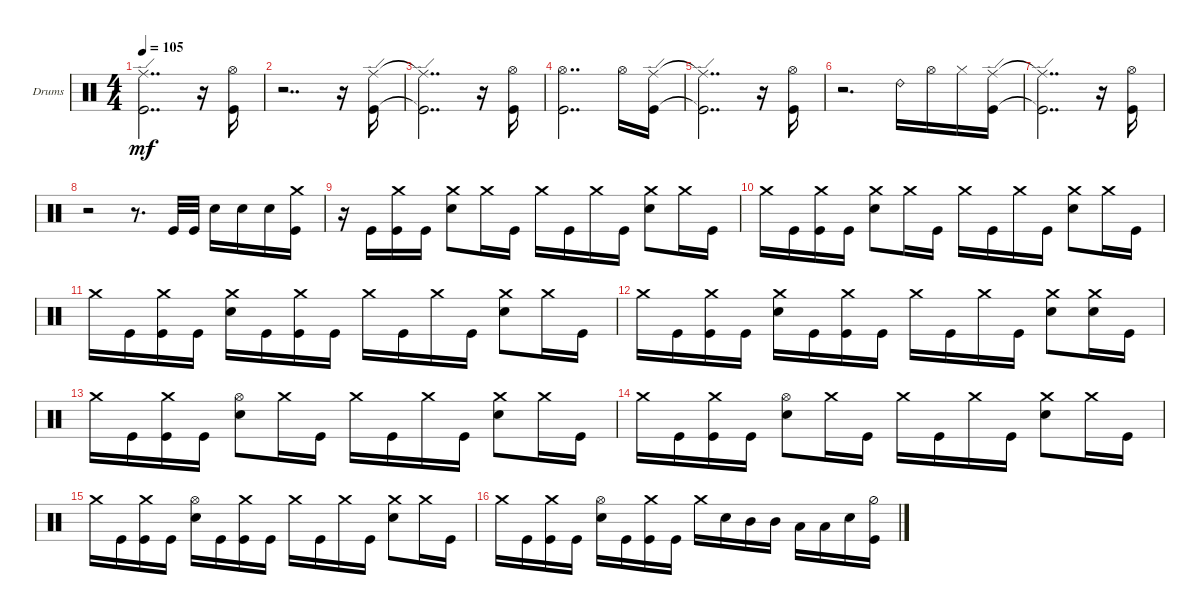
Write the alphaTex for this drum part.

\defaultSystemsLayout 4
\bracketExtendMode groupsimilarinstruments
\firstSystemTrackNameOrientation horizontal
\otherSystemsTrackNameOrientation horizontal
\track ("Drumkit" "Drums") {instrument percussion}
\staff {score}
\articulation defaults
\ts (4 4)
\tempo 105
\clef neutral
\ks c
("Kick (hit)" "Ride (edge)").2{dd dy mf} r.16 ("Kick (hit)" "Hi-Hat (open)").16 |
r.2{dd} r.16 ("Kick (hit)" "Ride (edge)").16 |
("Kick (hit)"{t} "Ride (edge)"{t}).2{dd} r.16 ("Kick (hit)" "Hi-Hat (open)").16 |
("Kick (hit)" "Hi-Hat (open)").2{dd} "Hi-Hat (open)".16 ("Kick (hit)" "Ride (edge)").16 |
("Kick (hit)"{t} "Ride (edge)"{t}).2{dd} r.16 ("Kick (hit)" "Hi-Hat (open)").16 |
r.2{d} "Ride (bell) 2".16 "Hi-Hat (open)".16 "Hi-Hat (closed)".16 ("Kick (hit)" "Ride (edge)").16 |
("Kick (hit)"{t} "Ride (edge)"{t}).2{dd} r.16 ("Kick (hit)" "Hi-Hat (open)").16 |
r.2 r.8{d} "Kick (hit)".32 "Kick (hit)".32 "Snare (hit) 2".16 "Snare (hit) 2".16 "Snare (hit) 2".16 ("Kick (hit)" "Crash medium (hit)").16 |
r.16 "Kick (hit)".16 ("Kick (hit)" "Crash medium (hit)").16 "Kick (hit)".16 ("Snare (hit) 2" "Crash medium (hit)").8 "Crash medium (hit)".16 "Kick (hit)".16 "Crash medium (hit)".16 "Kick (hit)".16 "Crash medium (hit)".16 "Kick (hit)".16 ("Snare (hit) 2" "Crash medium (hit)").8 "Crash medium (hit)".16 "Kick (hit)".16 |
"Crash medium (hit)".16 "Kick (hit)".16 ("Kick (hit)" "Crash medium (hit)").16 "Kick (hit)".16 ("Snare (hit) 2" "Crash medium (hit)").8 "Crash medium (hit)".16 "Kick (hit)".16 "Crash medium (hit)".16 "Kick (hit)".16 "Crash medium (hit)".16 "Kick (hit)".16 ("Snare (hit) 2" "Crash medium (hit)").8 "Crash medium (hit)".16 "Kick (hit)".16 |
"Crash medium (hit)".16 "Kick (hit)".16 ("Kick (hit)" "Crash medium (hit)").16 "Kick (hit)".16 ("Snare (hit) 2" "Crash medium (hit)").16 "Kick (hit)".16 ("Crash medium (hit)" "Kick (hit)").16 "Kick (hit)".16 "Crash medium (hit)".16 "Kick (hit)".16 "Crash medium (hit)".16 "Kick (hit)".16 ("Snare (hit) 2" "Crash medium (hit)").8 "Crash medium (hit)".16 "Kick (hit)".16 |
"Crash medium (hit)".16 "Kick (hit)".16 ("Kick (hit)" "Crash medium (hit)").16 "Kick (hit)".16 ("Snare (hit) 2" "Crash medium (hit)").16 "Kick (hit)".16 ("Crash medium (hit)" "Kick (hit)").16 "Kick (hit)".16 "Crash medium (hit)".16 "Kick (hit)".16 "Crash medium (hit)".16 "Kick (hit)".16 ("Snare (hit) 2" "Crash medium (hit)").8 ("Crash medium (hit)" "Snare (hit) 2").16 "Kick (hit)".16 |
"Crash medium (hit)".16 "Kick (hit)".16 ("Kick (hit)" "Crash medium (hit)").16 "Kick (hit)".16 ("Snare (hit) 2" "Hi-Hat (open)").8 "Crash medium (hit)".16 "Kick (hit)".16 "Crash medium (hit)".16 "Kick (hit)".16 "Crash medium (hit)".16 "Kick (hit)".16 ("Snare (hit) 2" "Crash medium (hit)").8 "Crash medium (hit)".16 "Kick (hit)".16 |
"Crash medium (hit)".16 "Kick (hit)".16 ("Kick (hit)" "Crash medium (hit)").16 "Kick (hit)".16 ("Snare (hit) 2" "Hi-Hat (open)").8 "Crash medium (hit)".16 "Kick (hit)".16 "Crash medium (hit)".16 "Kick (hit)".16 "Crash medium (hit)".16 "Kick (hit)".16 ("Snare (hit) 2" "Crash medium (hit)").8 "Crash medium (hit)".16 "Kick (hit)".16 |
"Crash medium (hit)".16 "Kick (hit)".16 ("Kick (hit)" "Crash medium (hit)").16 "Kick (hit)".16 ("Snare (hit) 2" "Hi-Hat (open)").16 "Kick (hit)".16 ("Crash medium (hit)" "Kick (hit)").16 "Kick (hit)".16 "Crash medium (hit)".16 "Kick (hit)".16 "Crash medium (hit)".16 "Kick (hit)".16 ("Snare (hit) 2" "Crash medium (hit)").8 "Crash medium (hit)".16 "Kick (hit)".16 |
"Crash medium (hit)".16 "Kick (hit)".16 ("Kick (hit)" "Crash medium (hit)").16 "Kick (hit)".16 ("Snare (hit) 2" "Hi-Hat (open)").16 "Kick (hit)".16 ("Crash medium (hit)" "Kick (hit)").16 "Kick (hit)".16 "Crash medium (hit)".16 "Snare (hit) 2".16 "Mid Tom (hit)".16 "Mid Tom (hit)".16 "Low Tom (hit)".16 "Low Tom (hit)".16 "Snare (hit) 2".16 ("Kick (hit)" "Hi-Hat (half)").16
